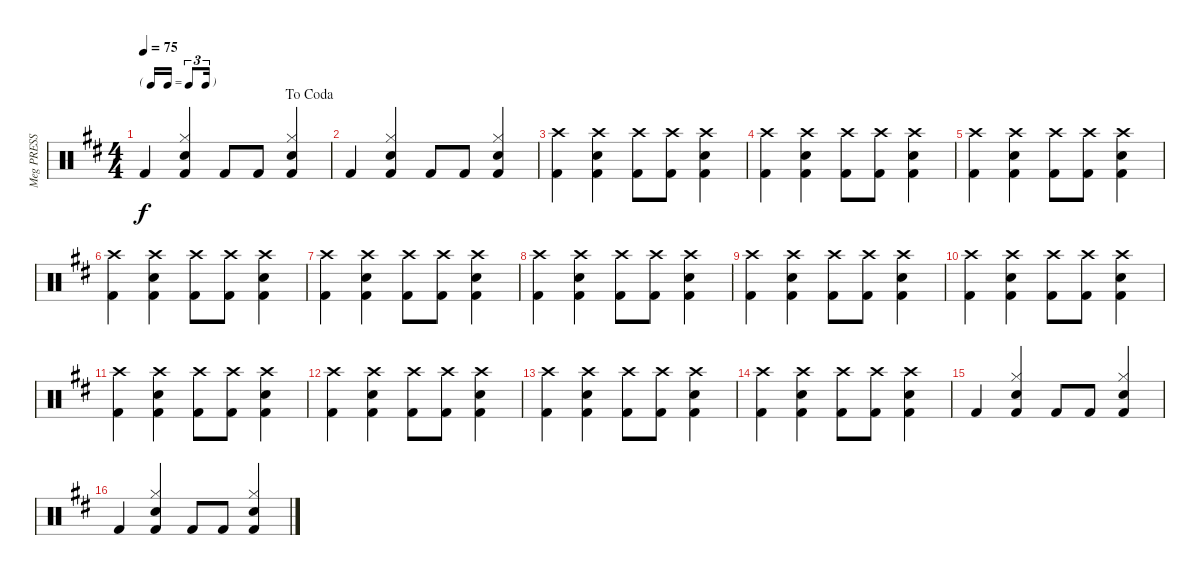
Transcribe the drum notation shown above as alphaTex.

\track ("Meg PRESS F5!!" "Meg PRESS ") {instrument percussion}
\staff {score}
\articulation defaults
\ts (4 4)
\tf triplet16th
\jump dacoda
\tempo 75
\clef neutral
\ks d "Kick (hit) 2".4{dy f}
("Kick (hit) 2" "Hi-Hat (closed)" "Snare (hit) 2").4 "Kick (hit) 2".8 "Kick (hit) 2".8 ("Kick (hit) 2" "Hi-Hat (closed)" "Snare (hit) 2").4 |
"Kick (hit) 2".4 ("Kick (hit) 2" "Hi-Hat (closed)" "Snare (hit) 2").4 "Kick (hit) 2".8 "Kick (hit) 2".8 ("Kick (hit) 2" "Hi-Hat (closed)" "Snare (hit) 2").4 |
("Kick (hit) 2" "Crash high (hit)").4 ("Kick (hit) 2" "Crash high (hit)" "Snare (hit) 2").4 ("Kick (hit) 2" "Crash high (hit)").8 ("Kick (hit) 2" "Crash high (hit)").8 ("Kick (hit) 2" "Crash high (hit)" "Snare (hit) 2").4 |
("Kick (hit) 2" "Crash high (hit)").4 ("Kick (hit) 2" "Crash high (hit)" "Snare (hit) 2").4 ("Kick (hit) 2" "Crash high (hit)").8 ("Kick (hit) 2" "Crash high (hit)").8 ("Kick (hit) 2" "Crash high (hit)" "Snare (hit) 2").4 |
("Kick (hit) 2" "Crash high (hit)").4 ("Kick (hit) 2" "Crash high (hit)" "Snare (hit) 2").4 ("Kick (hit) 2" "Crash high (hit)").8 ("Kick (hit) 2" "Crash high (hit)").8 ("Kick (hit) 2" "Crash high (hit)" "Snare (hit) 2").4 |
("Kick (hit) 2" "Crash high (hit)").4 ("Kick (hit) 2" "Crash high (hit)" "Snare (hit) 2").4 ("Kick (hit) 2" "Crash high (hit)").8 ("Kick (hit) 2" "Crash high (hit)").8 ("Kick (hit) 2" "Crash high (hit)" "Snare (hit) 2").4 |
("Kick (hit) 2" "Crash high (hit)").4 ("Kick (hit) 2" "Crash high (hit)" "Snare (hit) 2").4 ("Kick (hit) 2" "Crash high (hit)").8 ("Kick (hit) 2" "Crash high (hit)").8 ("Kick (hit) 2" "Crash high (hit)" "Snare (hit) 2").4 |
("Kick (hit) 2" "Crash high (hit)").4 ("Kick (hit) 2" "Crash high (hit)" "Snare (hit) 2").4 ("Kick (hit) 2" "Crash high (hit)").8 ("Kick (hit) 2" "Crash high (hit)").8 ("Kick (hit) 2" "Crash high (hit)" "Snare (hit) 2").4 |
("Kick (hit) 2" "Crash high (hit)").4 ("Kick (hit) 2" "Crash high (hit)" "Snare (hit) 2").4 ("Kick (hit) 2" "Crash high (hit)").8 ("Kick (hit) 2" "Crash high (hit)").8 ("Kick (hit) 2" "Crash high (hit)" "Snare (hit) 2").4 |
("Kick (hit) 2" "Crash high (hit)").4 ("Kick (hit) 2" "Crash high (hit)" "Snare (hit) 2").4 ("Kick (hit) 2" "Crash high (hit)").8 ("Kick (hit) 2" "Crash high (hit)").8 ("Kick (hit) 2" "Crash high (hit)" "Snare (hit) 2").4 |
("Kick (hit) 2" "Crash high (hit)").4 ("Kick (hit) 2" "Crash high (hit)" "Snare (hit) 2").4 ("Kick (hit) 2" "Crash high (hit)").8 ("Kick (hit) 2" "Crash high (hit)").8 ("Kick (hit) 2" "Crash high (hit)" "Snare (hit) 2").4 |
("Kick (hit) 2" "Crash high (hit)").4 ("Kick (hit) 2" "Crash high (hit)" "Snare (hit) 2").4 ("Kick (hit) 2" "Crash high (hit)").8 ("Kick (hit) 2" "Crash high (hit)").8 ("Kick (hit) 2" "Crash high (hit)" "Snare (hit) 2").4 |
("Kick (hit) 2" "Crash high (hit)").4 ("Kick (hit) 2" "Crash high (hit)" "Snare (hit) 2").4 ("Kick (hit) 2" "Crash high (hit)").8 ("Kick (hit) 2" "Crash high (hit)").8 ("Kick (hit) 2" "Crash high (hit)" "Snare (hit) 2").4 |
("Kick (hit) 2" "Crash high (hit)").4 ("Kick (hit) 2" "Crash high (hit)" "Snare (hit) 2").4 ("Kick (hit) 2" "Crash high (hit)").8 ("Kick (hit) 2" "Crash high (hit)").8 ("Kick (hit) 2" "Crash high (hit)" "Snare (hit) 2").4 |
"Kick (hit) 2".4 ("Kick (hit) 2" "Hi-Hat (closed)" "Snare (hit) 2").4 "Kick (hit) 2".8 "Kick (hit) 2".8 ("Kick (hit) 2" "Hi-Hat (closed)" "Snare (hit) 2").4 |
"Kick (hit) 2".4 ("Kick (hit) 2" "Hi-Hat (closed)" "Snare (hit) 2").4 "Kick (hit) 2".8 "Kick (hit) 2".8 ("Kick (hit) 2" "Hi-Hat (closed)" "Snare (hit) 2").4
